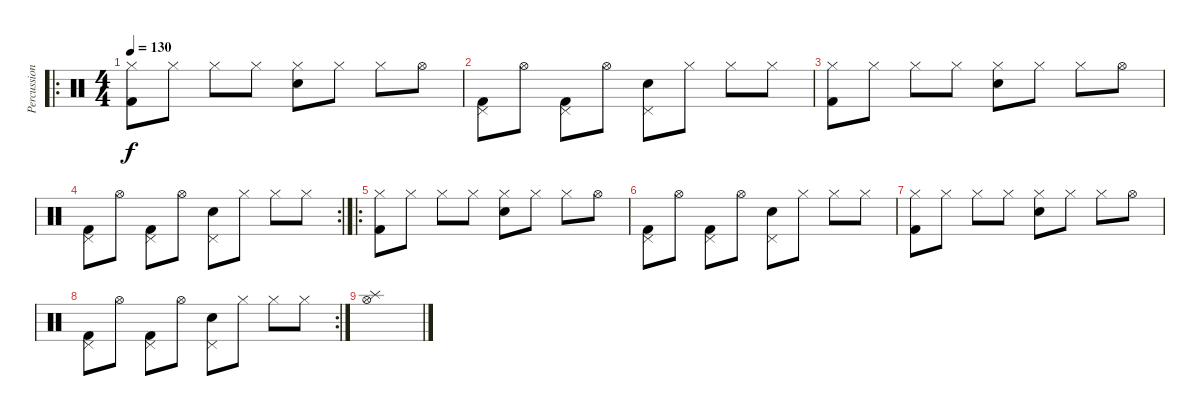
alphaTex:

\track ("Percussion" "Percussion") {instrument percussion}
\staff {score}
\articulation defaults
\ro
\ts (4 4)
\tempo 130
\clef neutral
\ks c
("Hi-Hat (closed)" "Kick (hit) 2").8{dy f volume 13} "Hi-Hat (closed)".8 "Hi-Hat (closed)".8 "Hi-Hat (closed)".8 ("Hi-Hat (closed)" "Snare (hit) 2").8 "Hi-Hat (closed)".8 "Hi-Hat (closed)".8 "Hi-Hat (open)".8 |
("Pedal Hi-Hat (hit)" "Kick (hit) 2").8 "Hi-Hat (open)".8 ("Pedal Hi-Hat (hit)" "Kick (hit) 2").8 "Hi-Hat (open)".8 ("Pedal Hi-Hat (hit)" "Snare (hit) 2").8 "Hi-Hat (closed)".8 "Hi-Hat (closed)".8 "Hi-Hat (closed)".8 |
("Hi-Hat (closed)" "Kick (hit) 2").8 "Hi-Hat (closed)".8 "Hi-Hat (closed)".8 "Hi-Hat (closed)".8 ("Hi-Hat (closed)" "Snare (hit) 2").8 "Hi-Hat (closed)".8 "Hi-Hat (closed)".8 "Hi-Hat (open)".8 |
\rc 2
("Pedal Hi-Hat (hit)" "Kick (hit) 2").8 "Hi-Hat (open)".8 ("Pedal Hi-Hat (hit)" "Kick (hit) 2").8 "Hi-Hat (open)".8 ("Pedal Hi-Hat (hit)" "Snare (hit) 2").8 "Hi-Hat (closed)".8 "Hi-Hat (closed)".8 "Hi-Hat (closed)".8 |
\ro
("Hi-Hat (closed)" "Kick (hit) 2").8{volume 13} "Hi-Hat (closed)".8 "Hi-Hat (closed)".8 "Hi-Hat (closed)".8 ("Hi-Hat (closed)" "Snare (hit) 2").8 "Hi-Hat (closed)".8 "Hi-Hat (closed)".8 "Hi-Hat (open)".8 |
("Pedal Hi-Hat (hit)" "Kick (hit) 2").8 "Hi-Hat (open)".8 ("Pedal Hi-Hat (hit)" "Kick (hit) 2").8 "Hi-Hat (open)".8 ("Pedal Hi-Hat (hit)" "Snare (hit) 2").8 "Hi-Hat (closed)".8 "Hi-Hat (closed)".8 "Hi-Hat (closed)".8 |
("Hi-Hat (closed)" "Kick (hit) 2").8 "Hi-Hat (closed)".8 "Hi-Hat (closed)".8 "Hi-Hat (closed)".8 ("Hi-Hat (closed)" "Snare (hit) 2").8 "Hi-Hat (closed)".8 "Hi-Hat (closed)".8 "Hi-Hat (open)".8 |
\rc 2
("Pedal Hi-Hat (hit)" "Kick (hit) 2").8 "Hi-Hat (open)".8 ("Pedal Hi-Hat (hit)" "Kick (hit) 2").8 "Hi-Hat (open)".8 ("Pedal Hi-Hat (hit)" "Snare (hit) 2").8 "Hi-Hat (closed)".8 "Hi-Hat (closed)".8 "Hi-Hat (closed)".8 |
("Hi-Hat (open)" "Splash (hit)").1
